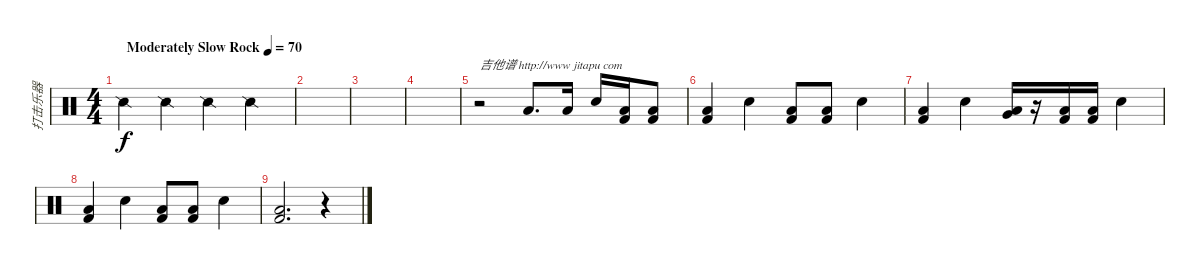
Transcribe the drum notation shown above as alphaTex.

\track ("打击乐器" "打击乐器") {instrument percussion bank 5}
\staff {score}
\articulation defaults
\ts (4 4)
\tempo (70 "Moderately Slow Rock")
\clef neutral
\ks c "Snare (side stick) 2".4{dy f} "Snare (side stick) 2".4 "Snare (side stick) 2".4 "Snare (side stick) 2".4
|
|
|
|
r.2{txt "吉他谱 http://www jitapu com"} "Low Floor Tom (hit)".8{d} "Low Floor Tom (hit)".16 "Electric Snare (hit)".16 ("Low Floor Tom (hit)" "Kick (hit) 2").16 ("Low Floor Tom (hit)" "Kick (hit) 2").8 |
("Low Floor Tom (hit)" "Kick (hit) 2").4 "Electric Snare (hit)".4 ("Low Floor Tom (hit)" "Kick (hit) 2").8 ("Low Floor Tom (hit)" "Kick (hit) 2").8 "Electric Snare (hit)".4 |
("Low Floor Tom (hit)" "Kick (hit) 2").4 "Electric Snare (hit)".4 ("Low Floor Tom (hit)" "Very Low Tom (hit)").16 r.16 ("Low Floor Tom (hit)" "Kick (hit) 2").16 ("Low Floor Tom (hit)" "Kick (hit) 2").16 "Electric Snare (hit)".4 |
("Low Floor Tom (hit)" "Kick (hit) 2").4 "Electric Snare (hit)".4 ("Low Floor Tom (hit)" "Kick (hit) 2").8 ("Low Floor Tom (hit)" "Kick (hit) 2").8 "Electric Snare (hit)".4 |
("Low Floor Tom (hit)" "Kick (hit) 2").2{d} r.4
